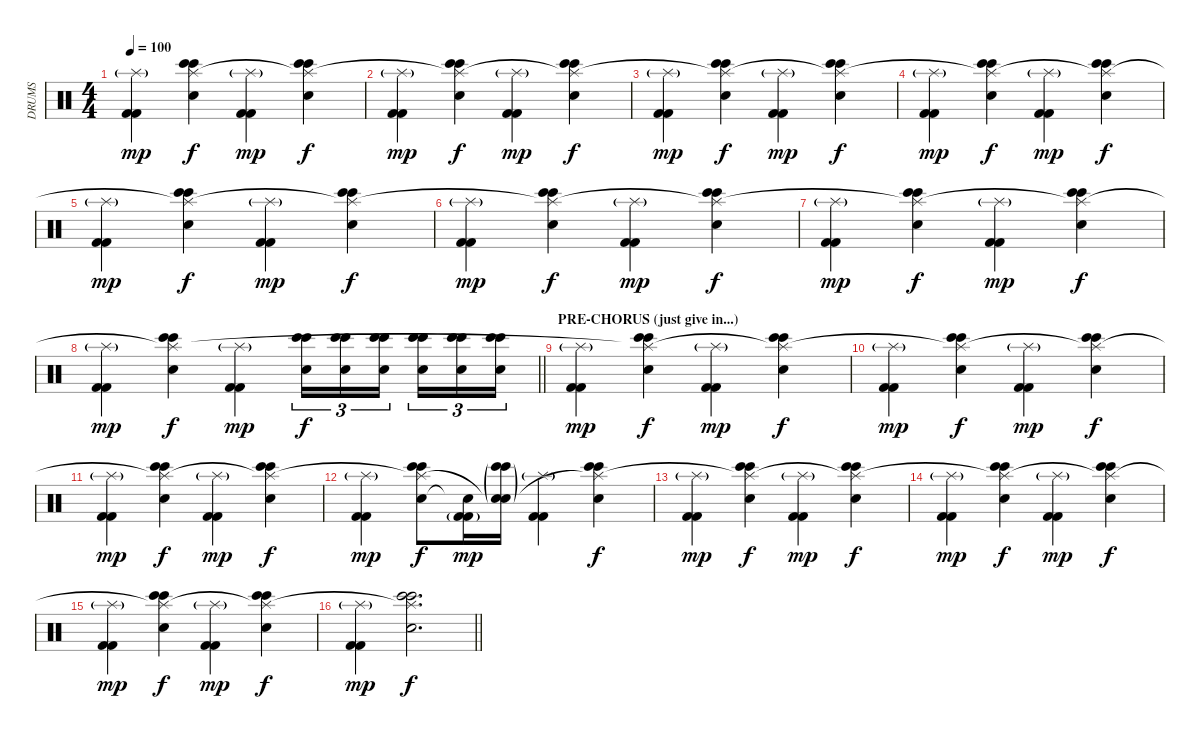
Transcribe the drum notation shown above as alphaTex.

\track ("DRUMS" "DRUMS") {instrument percussion}
\staff {score}
\articulation defaults
\ts (4 4)
\tempo 100
\clef neutral
\ks c
("Kick (hit) 2" "Kick (hit) 2" "Splash (hit)"{g}).4{dy mp} ("Bongo High (hit)" "Bongo High (hit)" "Snare (hit) 2" "Splash (hit)").4{dy f} ("Kick (hit) 2" "Kick (hit) 2" "Splash (hit)"{g}).4{dy mp} ("Bongo High (hit)" "Bongo High (hit)" "Snare (hit) 2" "Splash (hit)"{t}).4{dy f} |
("Kick (hit) 2" "Kick (hit) 2" "Splash (hit)"{g}).4{dy mp} ("Bongo High (hit)" "Bongo High (hit)" "Snare (hit) 2" "Splash (hit)"{t}).4{dy f} ("Kick (hit) 2" "Kick (hit) 2" "Splash (hit)"{g}).4{dy mp} ("Bongo High (hit)" "Bongo High (hit)" "Snare (hit) 2" "Splash (hit)"{t}).4{dy f} |
("Kick (hit) 2" "Kick (hit) 2" "Splash (hit)"{g}).4{dy mp} ("Bongo High (hit)" "Bongo High (hit)" "Snare (hit) 2" "Splash (hit)"{t}).4{dy f} ("Kick (hit) 2" "Kick (hit) 2" "Splash (hit)"{g}).4{dy mp} ("Bongo High (hit)" "Bongo High (hit)" "Snare (hit) 2" "Splash (hit)"{t}).4{dy f} |
("Kick (hit) 2" "Kick (hit) 2" "Splash (hit)"{g}).4{dy mp} ("Bongo High (hit)" "Bongo High (hit)" "Snare (hit) 2" "Splash (hit)"{t}).4{dy f} ("Kick (hit) 2" "Kick (hit) 2" "Splash (hit)"{g}).4{dy mp} ("Bongo High (hit)" "Bongo High (hit)" "Snare (hit) 2" "Splash (hit)"{t}).4{dy f} |
("Kick (hit) 2" "Kick (hit) 2" "Splash (hit)"{g}).4{dy mp} ("Bongo High (hit)" "Bongo High (hit)" "Snare (hit) 2" "Splash (hit)"{t}).4{dy f} ("Kick (hit) 2" "Kick (hit) 2" "Splash (hit)"{g}).4{dy mp} ("Bongo High (hit)" "Bongo High (hit)" "Snare (hit) 2" "Splash (hit)"{t}).4{dy f} |
("Kick (hit) 2" "Kick (hit) 2" "Splash (hit)"{g}).4{dy mp} ("Bongo High (hit)" "Bongo High (hit)" "Snare (hit) 2" "Splash (hit)"{t}).4{dy f} ("Kick (hit) 2" "Kick (hit) 2" "Splash (hit)"{g}).4{dy mp} ("Bongo High (hit)" "Bongo High (hit)" "Snare (hit) 2" "Splash (hit)"{t}).4{dy f} |
("Kick (hit) 2" "Kick (hit) 2" "Splash (hit)"{g}).4{dy mp} ("Bongo High (hit)" "Bongo High (hit)" "Snare (hit) 2" "Splash (hit)"{t}).4{dy f} ("Kick (hit) 2" "Kick (hit) 2" "Splash (hit)"{g}).4{dy mp} ("Bongo High (hit)" "Bongo High (hit)" "Snare (hit) 2" "Splash (hit)"{t}).4{dy f} |
\barLineRight lightlight
("Kick (hit) 2" "Kick (hit) 2" "Splash (hit)"{g}).4{dy mp} ("Bongo High (hit)" "Bongo High (hit)" "Snare (hit) 2" "Splash (hit)"{t}).4{dy f} ("Kick (hit) 2" "Kick (hit) 2" "Splash (hit)"{g}).4{dy mp} ("Bongo High (hit)" "Bongo High (hit)" "Snare (hit) 2").16{tu (3 2) dy f} ("Bongo High (hit)" "Bongo High (hit)" "Snare (hit) 2").16{tu (3 2)} ("Bongo High (hit)" "Bongo High (hit)" "Snare (hit) 2").16{tu (3 2) beam splitsecondary} ("Bongo High (hit)" "Bongo High (hit)" "Snare (hit) 2").16{tu (3 2)} ("Bongo High (hit)" "Bongo High (hit)" "Snare (hit) 2").16{tu (3 2)} ("Bongo High (hit)" "Bongo High (hit)" "Snare (hit) 2").16{tu (3 2)} |
\section ("" "PRE-CHORUS (just give in...)")
("Kick (hit) 2" "Kick (hit) 2" "Splash (hit)"{g}).4{dy mp} ("Bongo High (hit)" "Bongo High (hit)" "Snare (hit) 2" "Splash (hit)"{t}).4{dy f} ("Kick (hit) 2" "Kick (hit) 2" "Splash (hit)"{g}).4{dy mp} ("Bongo High (hit)" "Bongo High (hit)" "Snare (hit) 2" "Splash (hit)"{t}).4{dy f} |
("Kick (hit) 2" "Kick (hit) 2" "Splash (hit)"{g}).4{dy mp} ("Bongo High (hit)" "Bongo High (hit)" "Snare (hit) 2" "Splash (hit)"{t}).4{dy f} ("Kick (hit) 2" "Kick (hit) 2" "Splash (hit)"{g}).4{dy mp} ("Bongo High (hit)" "Bongo High (hit)" "Snare (hit) 2" "Splash (hit)"{t}).4{dy f} |
("Kick (hit) 2" "Kick (hit) 2" "Splash (hit)"{g}).4{dy mp} ("Bongo High (hit)" "Bongo High (hit)" "Snare (hit) 2" "Splash (hit)"{t}).4{dy f} ("Kick (hit) 2" "Kick (hit) 2" "Splash (hit)"{g}).4{dy mp} ("Bongo High (hit)" "Bongo High (hit)" "Snare (hit) 2" "Splash (hit)"{t}).4{dy f} |
("Kick (hit) 2" "Kick (hit) 2" "Splash (hit)"{g}).4{dy mp} ("Bongo High (hit)" "Bongo High (hit)" "Snare (hit) 2" "Splash (hit)"{t}).8{dy f} ("Kick (hit) 2"{g} "Kick (hit) 2"{g} "Snare (hit)"{t}).16{dy mp} ("Bongo High (hit)"{g} "Bongo High (hit)"{g} "Snare (hit) 2"{g} "Snare (hit)"{t}).16 ("Kick (hit) 2" "Kick (hit) 2" "Splash (hit)"{g}).4 ("Bongo High (hit)" "Bongo High (hit)" "Snare (hit) 2" "Splash (hit)"{t}).4{dy f} |
("Kick (hit) 2" "Kick (hit) 2" "Splash (hit)"{g}).4{dy mp} ("Bongo High (hit)" "Bongo High (hit)" "Snare (hit) 2" "Splash (hit)"{t}).4{dy f} ("Kick (hit) 2" "Kick (hit) 2" "Splash (hit)"{g}).4{dy mp} ("Bongo High (hit)" "Bongo High (hit)" "Snare (hit) 2" "Splash (hit)"{t}).4{dy f} |
("Kick (hit) 2" "Kick (hit) 2" "Splash (hit)"{g}).4{dy mp} ("Bongo High (hit)" "Bongo High (hit)" "Snare (hit) 2" "Splash (hit)"{t}).4{dy f} ("Kick (hit) 2" "Kick (hit) 2" "Splash (hit)"{g}).4{dy mp} ("Bongo High (hit)" "Bongo High (hit)" "Snare (hit) 2" "Splash (hit)"{t}).4{dy f} |
("Kick (hit) 2" "Kick (hit) 2" "Splash (hit)"{g}).4{dy mp} ("Bongo High (hit)" "Bongo High (hit)" "Snare (hit) 2" "Splash (hit)"{t}).4{dy f} ("Kick (hit) 2" "Kick (hit) 2" "Splash (hit)"{g}).4{dy mp} ("Bongo High (hit)" "Bongo High (hit)" "Snare (hit) 2" "Splash (hit)"{t}).4{dy f} |
\barLineRight lightlight
("Kick (hit) 2" "Kick (hit) 2" "Splash (hit)"{g}).4{dy mp} ("Bongo High (hit)" "Bongo High (hit)" "Snare (hit) 2" "Splash (hit)"{t}).2{d dy f}
